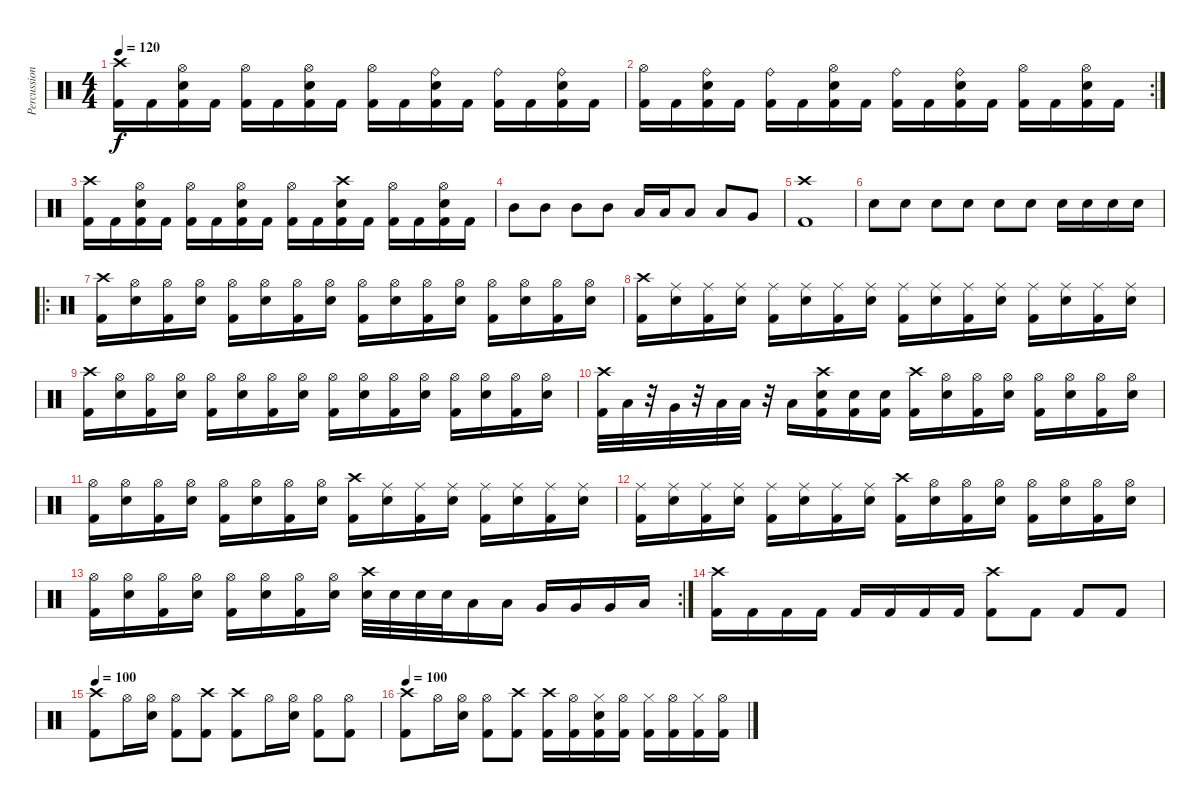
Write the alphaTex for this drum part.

\track ("Percussion" "Percussion") {instrument percussion}
\staff {score}
\articulation defaults
\ts (4 4)
\tempo 120
\clef neutral
\ks c
("Crash high (hit)" "Kick (hit) 2").16{dy f} "Kick (hit) 2".16 ("Hi-Hat (open)" "Snare (hit) 2" "Kick (hit) 2").16 "Kick (hit) 2".16 ("Hi-Hat (open)" "Kick (hit) 2").16 "Kick (hit) 2".16 ("Hi-Hat (open)" "Snare (hit) 2" "Kick (hit) 2").16 "Kick (hit) 2".16 ("Hi-Hat (open)" "Kick (hit) 2").16 "Kick (hit) 2".16 ("Ride (bell)" "Snare (hit) 2" "Kick (hit) 2").16 "Kick (hit) 2".16 ("Ride (bell)" "Kick (hit) 2").16 "Kick (hit) 2".16 ("Ride (bell)" "Snare (hit) 2" "Kick (hit) 2").16 "Kick (hit) 2".16 |
\rc 2
("Hi-Hat (open)" "Kick (hit) 2").16 "Kick (hit) 2".16 ("Ride (bell)" "Snare (hit) 2" "Kick (hit) 2").16 "Kick (hit) 2".16 ("Ride (bell)" "Kick (hit) 2").16 "Kick (hit) 2".16 ("Hi-Hat (open)" "Snare (hit) 2" "Kick (hit) 2").16 "Kick (hit) 2".16 ("Ride (bell)" "Kick (hit) 2").16 "Kick (hit) 2".16 ("Ride (bell)" "Snare (hit) 2" "Kick (hit) 2").16 "Kick (hit) 2".16 ("Hi-Hat (open)" "Kick (hit) 2").16 "Kick (hit) 2".16 ("Hi-Hat (open)" "Snare (hit) 2" "Kick (hit) 2").16 "Kick (hit) 2".16 |
("Crash high (hit)" "Kick (hit) 2").16 "Kick (hit) 2".16 ("Hi-Hat (open)" "Snare (hit) 2" "Kick (hit) 2").16 "Kick (hit) 2".16 ("Hi-Hat (open)" "Kick (hit) 2").16 "Kick (hit) 2".16 ("Hi-Hat (open)" "Snare (hit) 2" "Kick (hit) 2").16 "Kick (hit) 2".16 ("Hi-Hat (open)" "Kick (hit) 2").16 "Kick (hit) 2".16 ("Crash high (hit)" "Snare (hit) 2" "Kick (hit) 2").16 "Kick (hit) 2".16 ("Hi-Hat (open)" "Kick (hit) 2").16 "Kick (hit) 2".16 ("Hi-Hat (open)" "Snare (hit) 2" "Kick (hit) 2").16 "Kick (hit) 2".16 |
"Mid Tom (hit)".8 "Mid Tom (hit)".8 "Mid Tom (hit)".8 "Mid Tom (hit)".8 "Low Tom (hit)".16 "Low Tom (hit)".16 "Low Tom (hit)".8 "Low Tom (hit)".8 "Very Low Tom (hit)".8 |
("Crash high (hit)" "Kick (hit) 2").1 |
"Snare (hit) 2".8 "Snare (hit) 2".8 "Snare (hit) 2".8 "Snare (hit) 2".8 "Snare (hit) 2".8 "Snare (hit) 2".8 "Snare (hit) 2".16 "Snare (hit) 2".16 "Snare (hit) 2".16 "Snare (hit) 2".16 |
\ro
("Crash high (hit)" "Kick (hit) 2").16 ("Hi-Hat (open)" "Snare (hit) 2").16 ("Hi-Hat (open)" "Kick (hit) 2").16 ("Hi-Hat (open)" "Snare (hit) 2").16 ("Hi-Hat (open)" "Kick (hit) 2").16 ("Hi-Hat (open)" "Snare (hit) 2").16 ("Hi-Hat (open)" "Kick (hit) 2").16 ("Hi-Hat (open)" "Snare (hit) 2").16 ("Hi-Hat (open)" "Kick (hit) 2").16 ("Hi-Hat (open)" "Snare (hit) 2").16 ("Hi-Hat (open)" "Kick (hit) 2").16 ("Hi-Hat (open)" "Snare (hit) 2").16 ("Hi-Hat (open)" "Kick (hit) 2").16 ("Hi-Hat (open)" "Snare (hit) 2").16 ("Hi-Hat (open)" "Kick (hit) 2").16 ("Hi-Hat (open)" "Snare (hit) 2").16 |
("Crash high (hit)" "Kick (hit) 2").16 ("Ride (middle)" "Snare (hit) 2").16 ("Ride (middle)" "Kick (hit) 2").16 ("Ride (middle)" "Snare (hit) 2").16 ("Ride (middle)" "Kick (hit) 2").16 ("Ride (middle)" "Snare (hit) 2").16 ("Ride (middle)" "Kick (hit) 2").16 ("Ride (middle)" "Snare (hit) 2").16 ("Ride (middle)" "Kick (hit) 2").16 ("Ride (middle)" "Snare (hit) 2").16 ("Ride (middle)" "Kick (hit) 2").16 ("Ride (middle)" "Snare (hit) 2").16 ("Ride (middle)" "Kick (hit) 2").16 ("Ride (middle)" "Snare (hit) 2").16 ("Ride (middle)" "Kick (hit) 2").16 ("Ride (middle)" "Snare (hit) 2").16 |
("Crash high (hit)" "Kick (hit) 2").16 ("Hi-Hat (open)" "Snare (hit) 2").16 ("Hi-Hat (open)" "Kick (hit) 2").16 ("Hi-Hat (open)" "Snare (hit) 2").16 ("Hi-Hat (open)" "Kick (hit) 2").16 ("Hi-Hat (open)" "Snare (hit) 2").16 ("Hi-Hat (open)" "Kick (hit) 2").16 ("Hi-Hat (open)" "Snare (hit) 2").16 ("Hi-Hat (open)" "Kick (hit) 2").16 ("Hi-Hat (open)" "Snare (hit) 2").16 ("Hi-Hat (open)" "Kick (hit) 2").16 ("Hi-Hat (open)" "Snare (hit) 2").16 ("Hi-Hat (open)" "Kick (hit) 2").16 ("Hi-Hat (open)" "Snare (hit) 2").16 ("Hi-Hat (open)" "Kick (hit) 2").16 ("Hi-Hat (open)" "Snare (hit) 2").16 |
("Crash high (hit)" "Kick (hit) 2").32 "Low Tom (hit)".32 r.32 "Very Low Tom (hit)".32 r.32 "Low Floor Tom (hit)".32 "Low Floor Tom (hit)".32 r.32 "Low Floor Tom (hit)".16 ("Crash high (hit)" "Snare (hit) 2" "Kick (hit) 2").16 ("Snare (hit) 2" "Kick (hit) 2").16 ("Snare (hit) 2" "Kick (hit) 2").16 ("Crash high (hit)" "Kick (hit) 2").16 ("Hi-Hat (open)" "Snare (hit) 2").16 ("Hi-Hat (open)" "Kick (hit) 2").16 ("Hi-Hat (open)" "Snare (hit) 2").16 ("Hi-Hat (open)" "Kick (hit) 2").16 ("Hi-Hat (open)" "Snare (hit) 2").16 ("Hi-Hat (open)" "Kick (hit) 2").16 ("Hi-Hat (open)" "Snare (hit) 2").16 |
("Hi-Hat (open)" "Kick (hit) 2").16 ("Hi-Hat (open)" "Snare (hit) 2").16 ("Hi-Hat (open)" "Kick (hit) 2").16 ("Hi-Hat (open)" "Snare (hit) 2").16 ("Hi-Hat (open)" "Kick (hit) 2").16 ("Hi-Hat (open)" "Snare (hit) 2").16 ("Hi-Hat (open)" "Kick (hit) 2").16 ("Hi-Hat (open)" "Snare (hit) 2").16 ("Crash high (hit)" "Kick (hit) 2").16 ("Ride (middle)" "Snare (hit) 2").16 ("Ride (middle)" "Kick (hit) 2").16 ("Ride (middle)" "Snare (hit) 2").16 ("Ride (middle)" "Kick (hit) 2").16 ("Ride (middle)" "Snare (hit) 2").16 ("Ride (middle)" "Kick (hit) 2").16 ("Ride (middle)" "Snare (hit) 2").16 |
("Ride (middle)" "Kick (hit) 2").16 ("Ride (middle)" "Snare (hit) 2").16 ("Ride (middle)" "Kick (hit) 2").16 ("Ride (middle)" "Snare (hit) 2").16 ("Ride (middle)" "Kick (hit) 2").16 ("Ride (middle)" "Snare (hit) 2").16 ("Ride (middle)" "Kick (hit) 2").16 ("Ride (middle)" "Snare (hit) 2").16 ("Crash high (hit)" "Kick (hit) 2").16 ("Hi-Hat (open)" "Snare (hit) 2").16 ("Hi-Hat (open)" "Kick (hit) 2").16 ("Hi-Hat (open)" "Snare (hit) 2").16 ("Hi-Hat (open)" "Kick (hit) 2").16 ("Hi-Hat (open)" "Snare (hit) 2").16 ("Hi-Hat (open)" "Kick (hit) 2").16 ("Hi-Hat (open)" "Snare (hit) 2").16 |
\rc 2
("Hi-Hat (open)" "Kick (hit) 2").16 ("Hi-Hat (open)" "Snare (hit) 2").16 ("Hi-Hat (open)" "Kick (hit) 2").16 ("Hi-Hat (open)" "Snare (hit) 2").16 ("Hi-Hat (open)" "Kick (hit) 2").16 ("Hi-Hat (open)" "Snare (hit) 2").16 ("Hi-Hat (open)" "Kick (hit) 2").16 ("Hi-Hat (open)" "Snare (hit) 2").16 ("Crash high (hit)" "Snare (hit) 2").32 "Snare (hit) 2".32 "Snare (hit) 2".32 "Snare (hit) 2".32 "Low Tom (hit)".16 "Low Tom (hit)".16 "Very Low Tom (hit)".16 "Very Low Tom (hit)".16 "Very Low Tom (hit)".16 "Low Floor Tom (hit)".16 |
("Crash high (hit)" "Kick (hit) 2").16 "Kick (hit) 2".16 "Kick (hit) 2".16 "Kick (hit) 2".16 "Kick (hit) 2".16 "Kick (hit) 2".16 "Kick (hit) 2".16 "Kick (hit) 2".16 ("Crash high (hit)" "Kick (hit) 2").8 "Kick (hit) 2".8 "Kick (hit) 2".8 "Kick (hit) 2".8 |
\tempo 100
("Crash high (hit)" "Kick (hit) 2").8 "Hi-Hat (open)".16 ("Hi-Hat (open)" "Snare (hit) 2").16 ("Hi-Hat (open)" "Kick (hit) 2").8 ("Crash high (hit)" "Kick (hit) 2").8 ("Crash high (hit)" "Kick (hit) 2").8 "Hi-Hat (open)".16 ("Hi-Hat (open)" "Snare (hit) 2").16 ("Hi-Hat (open)" "Kick (hit) 2").8 ("Hi-Hat (open)" "Kick (hit) 2").8 |
\tempo 100
("Crash high (hit)" "Kick (hit) 2").8 "Hi-Hat (open)".16 ("Hi-Hat (open)" "Snare (hit) 2").16 ("Hi-Hat (open)" "Kick (hit) 2").8 ("Crash high (hit)" "Kick (hit) 2").8 ("Crash high (hit)" "Kick (hit) 2").16 ("Hi-Hat (open)" "Kick (hit) 2").16 ("Hi-Hat (closed)" "Snare (hit) 2" "Kick (hit) 2").16 ("Hi-Hat (open)" "Kick (hit) 2").16 ("Hi-Hat (closed)" "Kick (hit) 2").16 ("Hi-Hat (open)" "Kick (hit) 2").16 ("Hi-Hat (closed)" "Kick (hit) 2").16 ("Hi-Hat (open)" "Kick (hit) 2").16
